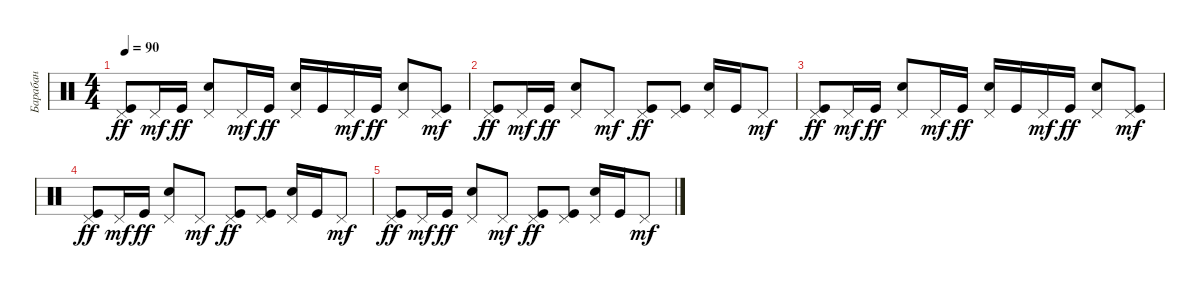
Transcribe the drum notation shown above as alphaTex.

\track ("Барабан" "Барабан") {instrument percussion}
\staff {score}
\articulation defaults
\ts (4 4)
\tempo 90
\clef neutral
\ks c
("Pedal Hi-Hat (hit)" "Kick (hit)").8{dy ff} "Pedal Hi-Hat (hit)".16{dy mf} "Kick (hit)".16{dy ff} ("Pedal Hi-Hat (hit)" "Snare (hit) 2").8 "Pedal Hi-Hat (hit)".16{dy mf} "Kick (hit)".16{dy ff} ("Pedal Hi-Hat (hit)" "Snare (hit) 2").16 "Kick (hit)".16 "Pedal Hi-Hat (hit)".16{dy mf} "Kick (hit)".16{dy ff} ("Pedal Hi-Hat (hit)" "Snare (hit) 2").8 ("Pedal Hi-Hat (hit)" "Kick (hit)").8{dy mf} |
("Pedal Hi-Hat (hit)" "Kick (hit)").8{dy ff volume 0} "Pedal Hi-Hat (hit)".16{dy mf} "Kick (hit)".16{dy ff} ("Pedal Hi-Hat (hit)" "Snare (hit) 2").8 "Pedal Hi-Hat (hit)".8{dy mf} ("Pedal Hi-Hat (hit)" "Kick (hit)").8{dy ff} ("Pedal Hi-Hat (hit)" "Kick (hit)").8 ("Pedal Hi-Hat (hit)" "Snare (hit) 2").16 "Kick (hit)".16 "Pedal Hi-Hat (hit)".8{dy mf} |
("Pedal Hi-Hat (hit)" "Kick (hit)").8{dy ff} "Pedal Hi-Hat (hit)".16{dy mf} "Kick (hit)".16{dy ff} ("Pedal Hi-Hat (hit)" "Snare (hit) 2").8 "Pedal Hi-Hat (hit)".16{dy mf} "Kick (hit)".16{dy ff} ("Pedal Hi-Hat (hit)" "Snare (hit) 2").16 "Kick (hit)".16 "Pedal Hi-Hat (hit)".16{dy mf} "Kick (hit)".16{dy ff} ("Pedal Hi-Hat (hit)" "Snare (hit) 2").8 ("Pedal Hi-Hat (hit)" "Kick (hit)").8{dy mf} |
("Pedal Hi-Hat (hit)" "Kick (hit)").8{dy ff} "Pedal Hi-Hat (hit)".16{dy mf} "Kick (hit)".16{dy ff} ("Pedal Hi-Hat (hit)" "Snare (hit) 2").8 "Pedal Hi-Hat (hit)".8{dy mf} ("Pedal Hi-Hat (hit)" "Kick (hit)").8{dy ff} ("Pedal Hi-Hat (hit)" "Kick (hit)").8 ("Pedal Hi-Hat (hit)" "Snare (hit) 2").16 "Kick (hit)".16 "Pedal Hi-Hat (hit)".8{dy mf} |
("Pedal Hi-Hat (hit)" "Kick (hit)").8{dy ff} "Pedal Hi-Hat (hit)".16{dy mf} "Kick (hit)".16{dy ff} ("Pedal Hi-Hat (hit)" "Snare (hit) 2").8 "Pedal Hi-Hat (hit)".8{dy mf} ("Pedal Hi-Hat (hit)" "Kick (hit)").8{dy ff} ("Pedal Hi-Hat (hit)" "Kick (hit)").8 ("Pedal Hi-Hat (hit)" "Snare (hit) 2").16 "Kick (hit)".16 "Pedal Hi-Hat (hit)".8{dy mf}
